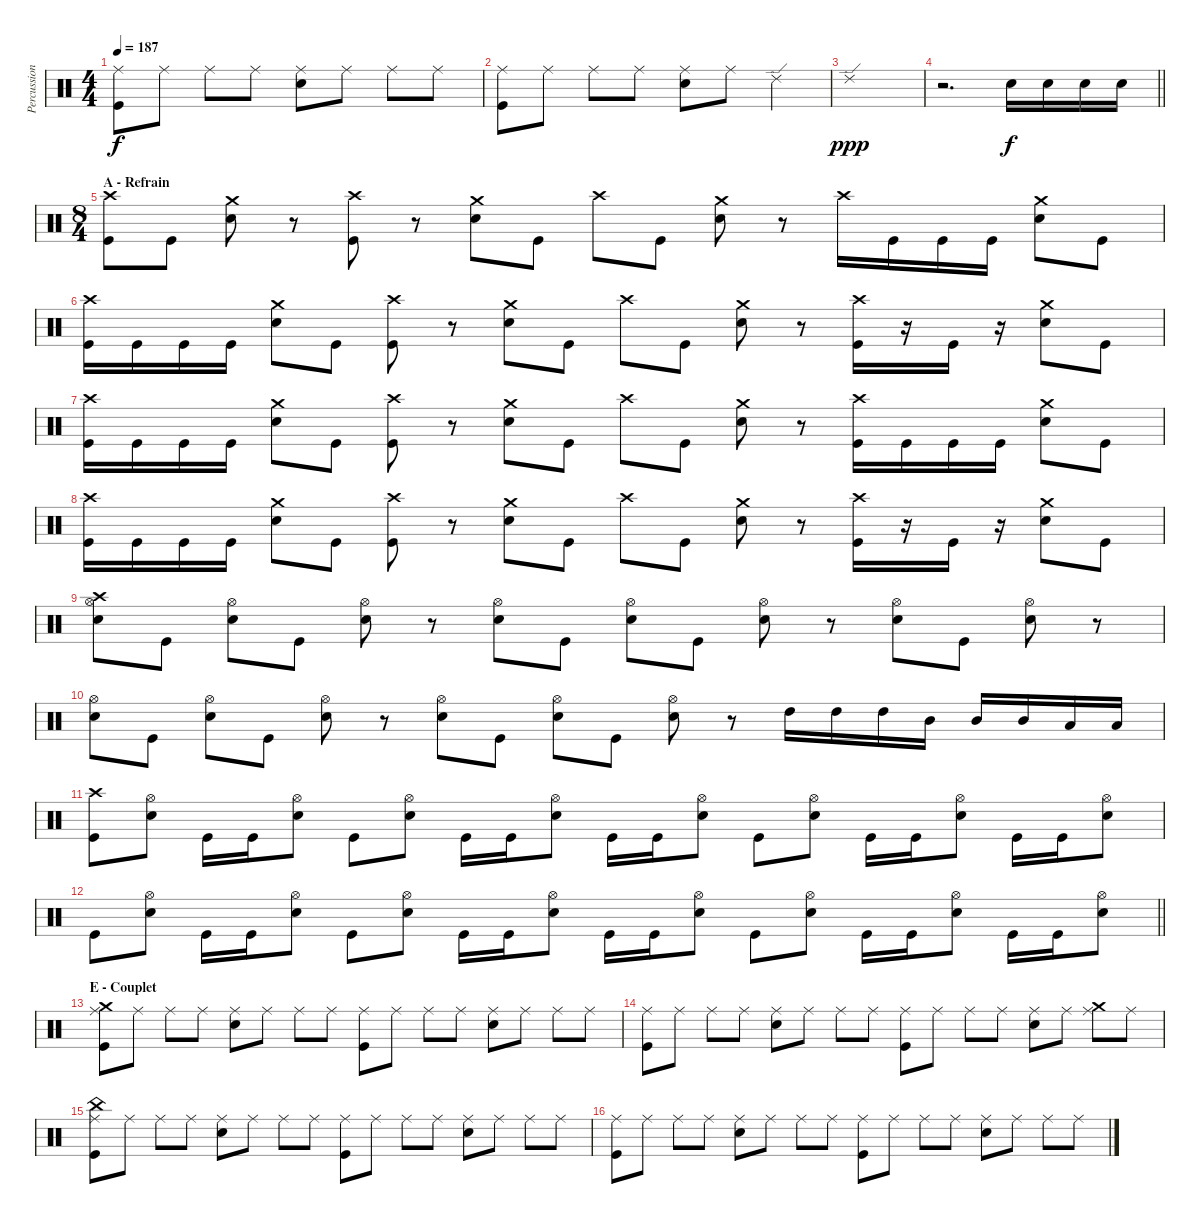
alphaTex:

\track ("Percussions" "Percussion") {instrument percussion}
\staff {score}
\articulation defaults
\ts (4 4)
\tempo 187
\clef neutral
\ks c
("Ride (middle)" "Kick (hit)").8{dy f} "Ride (middle)".8 "Ride (middle)".8 "Ride (middle)".8 ("Ride (middle)" "Snare (hit) 2").8 "Ride (middle)".8 "Ride (middle)".8 "Ride (middle)".8 |
("Ride (middle)" "Kick (hit)").8 "Ride (middle)".8 "Ride (middle)".8 "Ride (middle)".8 ("Ride (middle)" "Snare (hit) 2").8 "Ride (middle)".8 "Ride (edge) 2".4 |
"Ride (edge) 2".1{dy ppp} |
\barLineRight lightlight
r.2{d} "Snare (hit) 2".16{dy f} "Snare (hit) 2".16 "Snare (hit) 2".16 "Snare (hit) 2".16 |
\ts (8 4)
\section ("" "A - Refrain")
("Crash high (hit)" "Kick (hit)").8 "Kick (hit)".8 ("Crash medium (hit)" "Snare (hit) 2").8 r.8 ("Crash high (hit)" "Kick (hit)").8 r.8 ("Crash medium (hit)" "Snare (hit) 2").8 "Kick (hit)".8 "Crash high (hit)".8 "Kick (hit)".8 ("Crash medium (hit)" "Snare (hit) 2").8 r.8 "Crash high (hit)".16 "Kick (hit)".16 "Kick (hit)".16 "Kick (hit)".16 ("Crash medium (hit)" "Snare (hit) 2").8 "Kick (hit)".8 |
("Crash high (hit)" "Kick (hit)").16 "Kick (hit)".16 "Kick (hit)".16 "Kick (hit)".16 ("Crash medium (hit)" "Snare (hit) 2").8 "Kick (hit)".8 ("Crash high (hit)" "Kick (hit)").8 r.8 ("Crash medium (hit)" "Snare (hit) 2").8 "Kick (hit)".8 "Crash high (hit)".8 "Kick (hit)".8 ("Crash medium (hit)" "Snare (hit) 2").8 r.8 ("Crash high (hit)" "Kick (hit)").16 r.16 "Kick (hit)".16 r.16 ("Crash medium (hit)" "Snare (hit) 2").8 "Kick (hit)".8 |
("Crash high (hit)" "Kick (hit)").16 "Kick (hit)".16 "Kick (hit)".16 "Kick (hit)".16 ("Crash medium (hit)" "Snare (hit) 2").8 "Kick (hit)".8 ("Crash high (hit)" "Kick (hit)").8 r.8 ("Crash medium (hit)" "Snare (hit) 2").8 "Kick (hit)".8 "Crash high (hit)".8 "Kick (hit)".8 ("Crash medium (hit)" "Snare (hit) 2").8 r.8 ("Crash high (hit)" "Kick (hit)").16 "Kick (hit)".16 "Kick (hit)".16 "Kick (hit)".16 ("Crash medium (hit)" "Snare (hit) 2").8 "Kick (hit)".8 |
("Crash high (hit)" "Kick (hit)").16 "Kick (hit)".16 "Kick (hit)".16 "Kick (hit)".16 ("Crash medium (hit)" "Snare (hit) 2").8 "Kick (hit)".8 ("Crash high (hit)" "Kick (hit)").8 r.8 ("Crash medium (hit)" "Snare (hit) 2").8 "Kick (hit)".8 "Crash high (hit)".8 "Kick (hit)".8 ("Crash medium (hit)" "Snare (hit) 2").8 r.8 ("Crash high (hit)" "Kick (hit)").16 r.16 "Kick (hit)".16 r.16 ("Crash medium (hit)" "Snare (hit) 2").8 "Kick (hit)".8 |
("Crash high (hit)" "Hi-Hat (open)" "Snare (hit) 2").8 "Kick (hit)".8 ("Hi-Hat (open)" "Snare (hit) 2").8 "Kick (hit)".8 ("Hi-Hat (open)" "Snare (hit) 2").8 r.8 ("Hi-Hat (open)" "Snare (hit) 2").8 "Kick (hit)".8 ("Hi-Hat (open)" "Snare (hit) 2").8 "Kick (hit)".8 ("Hi-Hat (open)" "Snare (hit) 2").8 r.8 ("Hi-Hat (open)" "Snare (hit) 2").8 "Kick (hit)".8 ("Hi-Hat (open)" "Snare (hit) 2").8 r.8 |
("Hi-Hat (open)" "Snare (hit) 2").8 "Kick (hit)".8 ("Hi-Hat (open)" "Snare (hit) 2").8 "Kick (hit)".8 ("Hi-Hat (open)" "Snare (hit) 2").8 r.8 ("Hi-Hat (open)" "Snare (hit) 2").8 "Kick (hit)".8 ("Hi-Hat (open)" "Snare (hit) 2").8 "Kick (hit)".8 ("Hi-Hat (open)" "Snare (hit) 2").8 r.8 "High Tom (hit)".16 "High Tom (hit)".16 "High Tom (hit)".16 "Mid Tom (hit)".16 "Mid Tom (hit)".16 "Mid Tom (hit)".16 "Low Tom (hit)".16 "Low Tom (hit)".16 |
("Crash high (hit)" "Kick (hit)").8 ("Hi-Hat (open)" "Snare (hit) 2").8 "Kick (hit)".16 "Kick (hit)".16 ("Hi-Hat (open)" "Snare (hit) 2").8 "Kick (hit)".8 ("Hi-Hat (open)" "Snare (hit) 2").8 "Kick (hit)".16 "Kick (hit)".16 ("Hi-Hat (open)" "Snare (hit) 2").8 "Kick (hit)".16 "Kick (hit)".16 ("Hi-Hat (open)" "Snare (hit) 2").8 "Kick (hit)".8 ("Hi-Hat (open)" "Snare (hit) 2").8 "Kick (hit)".16 "Kick (hit)".16 ("Hi-Hat (open)" "Snare (hit) 2").8 "Kick (hit)".16 "Kick (hit)".16 ("Hi-Hat (open)" "Snare (hit) 2").8 |
\barLineRight lightlight "Kick (hit)".8
("Hi-Hat (open)" "Snare (hit) 2").8 "Kick (hit)".16 "Kick (hit)".16 ("Hi-Hat (open)" "Snare (hit) 2").8 "Kick (hit)".8 ("Hi-Hat (open)" "Snare (hit) 2").8 "Kick (hit)".16 "Kick (hit)".16 ("Hi-Hat (open)" "Snare (hit) 2").8 "Kick (hit)".16 "Kick (hit)".16 ("Hi-Hat (open)" "Snare (hit) 2").8 "Kick (hit)".8 ("Hi-Hat (open)" "Snare (hit) 2").8 "Kick (hit)".16 "Kick (hit)".16 ("Hi-Hat (open)" "Snare (hit) 2").8 "Kick (hit)".16 "Kick (hit)".16 ("Hi-Hat (open)" "Snare (hit) 2").8 |
\section ("" "E - Couplet")
("Crash medium (hit)" "Ride (middle)" "Kick (hit)").8 "Ride (middle)".8 "Ride (middle)".8 "Ride (middle)".8 ("Ride (middle)" "Snare (hit) 2").8 "Ride (middle)".8 "Ride (middle)".8 "Ride (middle)".8 ("Ride (middle)" "Kick (hit)").8 "Ride (middle)".8 "Ride (middle)".8 "Ride (middle)".8 ("Ride (middle)" "Snare (hit) 2").8 "Ride (middle)".8 "Ride (middle)".8 "Ride (middle)".8 |
("Ride (middle)" "Kick (hit)").8 "Ride (middle)".8 "Ride (middle)".8 "Ride (middle)".8 ("Ride (middle)" "Snare (hit) 2").8 "Ride (middle)".8 "Ride (middle)".8 "Ride (middle)".8 ("Ride (middle)" "Kick (hit)").8 "Ride (middle)".8 "Ride (middle)".8 "Ride (middle)".8 ("Ride (middle)" "Snare (hit) 2").8 "Ride (middle)".8 ("Crash medium (hit)" "Ride (middle)").8 "Ride (middle)".8 |
("China (hit)" "Ride (middle)" "Kick (hit)").8 "Ride (middle)".8 "Ride (middle)".8 "Ride (middle)".8 ("Ride (middle)" "Snare (hit) 2").8 "Ride (middle)".8 "Ride (middle)".8 "Ride (middle)".8 ("Ride (middle)" "Kick (hit)").8 "Ride (middle)".8 "Ride (middle)".8 "Ride (middle)".8 ("Ride (middle)" "Snare (hit) 2").8 "Ride (middle)".8 "Ride (middle)".8 "Ride (middle)".8 |
("Ride (middle)" "Kick (hit)").8 "Ride (middle)".8 "Ride (middle)".8 "Ride (middle)".8 ("Ride (middle)" "Snare (hit) 2").8 "Ride (middle)".8 "Ride (middle)".8 "Ride (middle)".8 ("Ride (middle)" "Kick (hit)").8 "Ride (middle)".8 "Ride (middle)".8 "Ride (middle)".8 ("Ride (middle)" "Snare (hit) 2").8 "Ride (middle)".8 "Ride (middle)".8 "Ride (middle)".8
